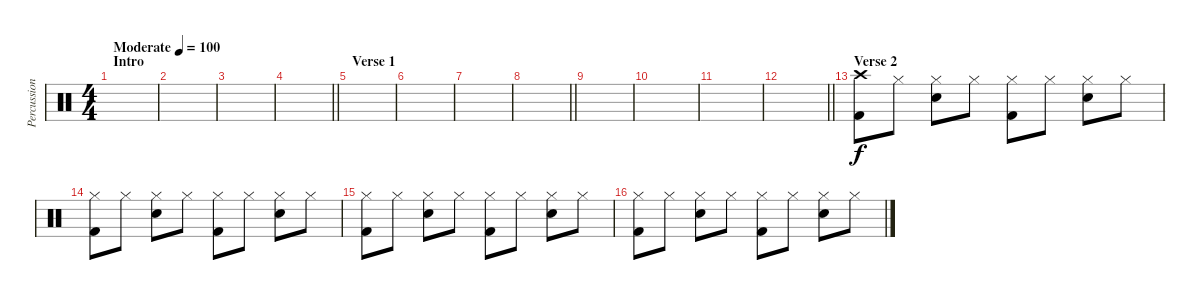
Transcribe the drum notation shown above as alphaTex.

\track ("Percussion" "Percussion") {instrument percussion}
\staff {score}
\articulation defaults
\ts (4 4)
\section ("" "Intro")
\tempo (100 "Moderate")
\clef neutral
\ks c
|
|
|
\barLineRight lightlight
|
\section ("" "Verse 1")
|
|
|
\barLineRight lightlight
|
|
|
|
\barLineRight lightlight
|
\section ("" "Verse 2")
("Crash high (hit)" "Kick (hit) 2").8 "Hi-Hat (closed)".8 ("Hi-Hat (closed)" "Snare (hit) 2").8 "Hi-Hat (closed)".8 ("Hi-Hat (closed)" "Kick (hit) 2").8 "Hi-Hat (closed)".8 ("Hi-Hat (closed)" "Snare (hit) 2").8 "Hi-Hat (closed)".8 |
("Hi-Hat (closed)" "Kick (hit) 2").8 "Hi-Hat (closed)".8 ("Hi-Hat (closed)" "Snare (hit) 2").8 "Hi-Hat (closed)".8 ("Hi-Hat (closed)" "Kick (hit) 2").8 "Hi-Hat (closed)".8 ("Hi-Hat (closed)" "Snare (hit) 2").8 "Hi-Hat (closed)".8 |
("Hi-Hat (closed)" "Kick (hit) 2").8 "Hi-Hat (closed)".8 ("Hi-Hat (closed)" "Snare (hit) 2").8 "Hi-Hat (closed)".8 ("Hi-Hat (closed)" "Kick (hit) 2").8 "Hi-Hat (closed)".8 ("Hi-Hat (closed)" "Snare (hit) 2").8 "Hi-Hat (closed)".8 |
("Hi-Hat (closed)" "Kick (hit) 2").8 "Hi-Hat (closed)".8 ("Hi-Hat (closed)" "Snare (hit) 2").8 "Hi-Hat (closed)".8 ("Hi-Hat (closed)" "Kick (hit) 2").8 "Hi-Hat (closed)".8 ("Hi-Hat (closed)" "Snare (hit) 2").8 "Hi-Hat (closed)".8
